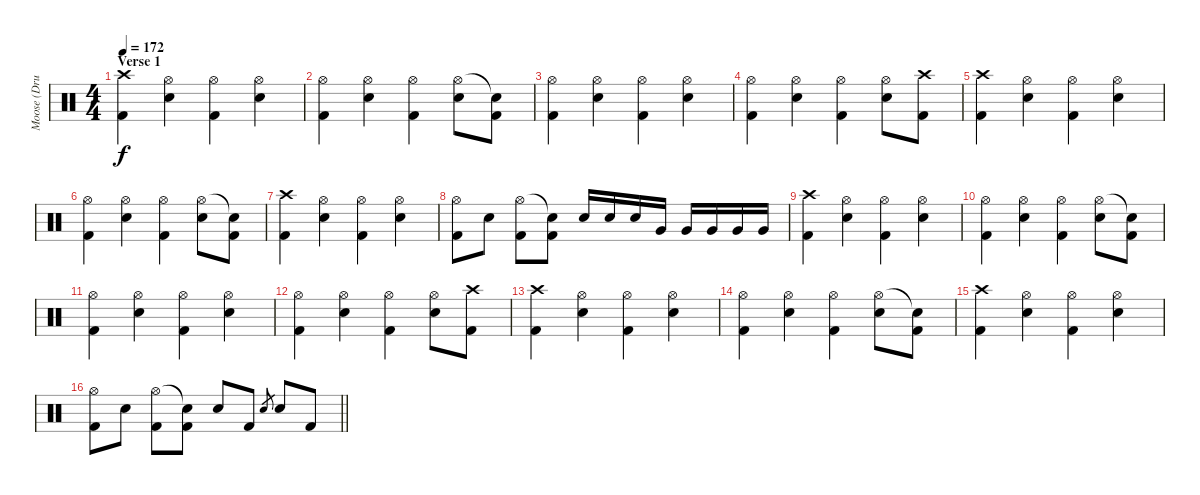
\track ("Moose (Drums)" "Moose (Dru") {instrument percussion}
\staff {score}
\articulation defaults
\ts (4 4)
\section ("" "Verse 1")
\tempo 172
\clef neutral
\ks c
("Crash high (hit)" "Kick (hit) 2").4{dy f} ("Hi-Hat (open)" "Electric Snare (hit)").4 ("Hi-Hat (open)" "Kick (hit) 2").4 ("Hi-Hat (open)" "Electric Snare (hit)").4 |
("Hi-Hat (open)" "Kick (hit) 2").4 ("Hi-Hat (open)" "Electric Snare (hit)").4 ("Hi-Hat (open)" "Kick (hit) 2").4 ("Hi-Hat (open)" "Electric Snare (hit)").8 ("Snare (hit)"{t} "Kick (hit) 2").8 |
("Hi-Hat (open)" "Kick (hit) 2").4 ("Hi-Hat (open)" "Electric Snare (hit)").4 ("Hi-Hat (open)" "Kick (hit) 2").4 ("Hi-Hat (open)" "Electric Snare (hit)").4 |
("Hi-Hat (open)" "Kick (hit) 2").4 ("Hi-Hat (open)" "Electric Snare (hit)").4 ("Hi-Hat (open)" "Kick (hit) 2").4 ("Hi-Hat (open)" "Electric Snare (hit)").8 ("Crash high (hit)" "Kick (hit) 2").8 |
("Crash high (hit)" "Kick (hit) 2").4 ("Hi-Hat (open)" "Electric Snare (hit)").4 ("Hi-Hat (open)" "Kick (hit) 2").4 ("Hi-Hat (open)" "Electric Snare (hit)").4 |
("Hi-Hat (open)" "Kick (hit) 2").4 ("Hi-Hat (open)" "Electric Snare (hit)").4 ("Hi-Hat (open)" "Kick (hit) 2").4 ("Hi-Hat (open)" "Electric Snare (hit)").8 ("Snare (hit)"{t} "Kick (hit) 2").8 |
("Crash high (hit)" "Kick (hit) 2").4 ("Hi-Hat (open)" "Electric Snare (hit)").4 ("Hi-Hat (open)" "Kick (hit) 2").4 ("Hi-Hat (open)" "Electric Snare (hit)").4 |
("Hi-Hat (open)" "Kick (hit) 2").8 "Electric Snare (hit)".8 ("Hi-Hat (open)" "Kick (hit) 2").8 ("Snare (hit)"{t} "Kick (hit) 2").8 "Electric Snare (hit)".16 "Electric Snare (hit)".16 "Electric Snare (hit)".16 "Very Low Tom (hit)".16 "Very Low Tom (hit)".16 "Very Low Tom (hit)".16 "Very Low Tom (hit)".16 "Very Low Tom (hit)".16 |
("Crash high (hit)" "Kick (hit) 2").4 ("Hi-Hat (open)" "Electric Snare (hit)").4 ("Hi-Hat (open)" "Kick (hit) 2").4 ("Hi-Hat (open)" "Electric Snare (hit)").4 |
("Hi-Hat (open)" "Kick (hit) 2").4 ("Hi-Hat (open)" "Electric Snare (hit)").4 ("Hi-Hat (open)" "Kick (hit) 2").4 ("Hi-Hat (open)" "Electric Snare (hit)").8 ("Snare (hit)"{t} "Kick (hit) 2").8 |
("Hi-Hat (open)" "Kick (hit) 2").4 ("Hi-Hat (open)" "Electric Snare (hit)").4 ("Hi-Hat (open)" "Kick (hit) 2").4 ("Hi-Hat (open)" "Electric Snare (hit)").4 |
("Hi-Hat (open)" "Kick (hit) 2").4 ("Hi-Hat (open)" "Electric Snare (hit)").4 ("Hi-Hat (open)" "Kick (hit) 2").4 ("Hi-Hat (open)" "Electric Snare (hit)").8 ("Crash high (hit)" "Kick (hit) 2").8 |
("Crash high (hit)" "Kick (hit) 2").4 ("Hi-Hat (open)" "Electric Snare (hit)").4 ("Hi-Hat (open)" "Kick (hit) 2").4 ("Hi-Hat (open)" "Electric Snare (hit)").4 |
("Hi-Hat (open)" "Kick (hit) 2").4 ("Hi-Hat (open)" "Electric Snare (hit)").4 ("Hi-Hat (open)" "Kick (hit) 2").4 ("Hi-Hat (open)" "Electric Snare (hit)").8 ("Snare (hit)"{t} "Kick (hit) 2").8 |
("Crash high (hit)" "Kick (hit) 2").4 ("Hi-Hat (open)" "Electric Snare (hit)").4 ("Hi-Hat (open)" "Kick (hit) 2").4 ("Hi-Hat (open)" "Electric Snare (hit)").4 |
\barLineRight lightlight
("Hi-Hat (open)" "Kick (hit) 2").8 "Electric Snare (hit)".8 ("Hi-Hat (open)" "Kick (hit) 2").8 ("Snare (hit)"{t} "Kick (hit) 2").8 "Electric Snare (hit)".8 "Kick (hit) 2".8 "Electric Snare (hit)".8{gr} "Electric Snare (hit)".8 "Kick (hit) 2".8
